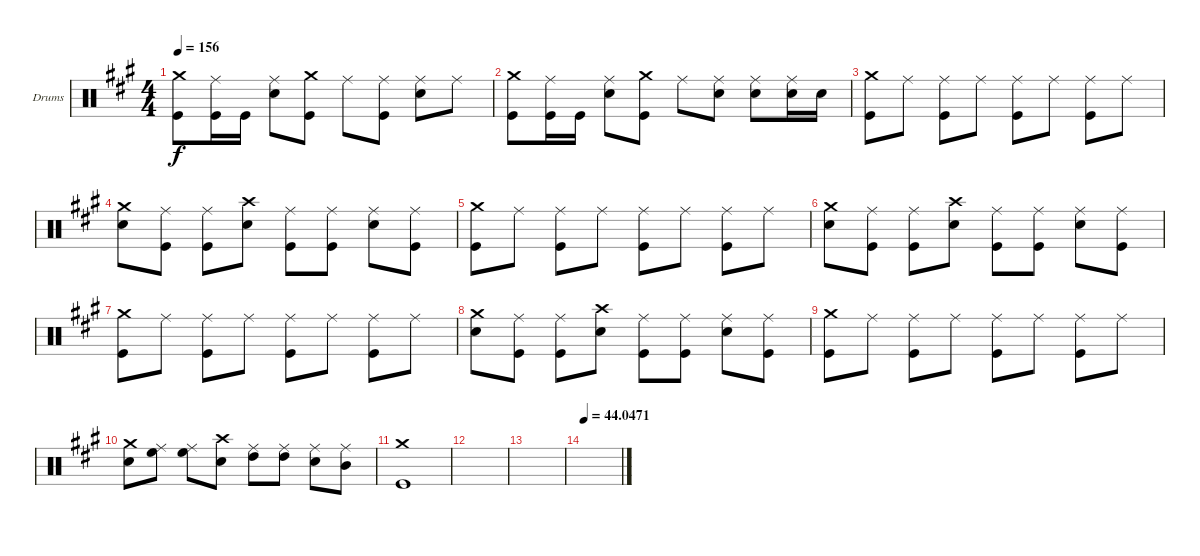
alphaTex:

\defaultSystemsLayout 4
\bracketExtendMode groupsimilarinstruments
\firstSystemTrackNameOrientation horizontal
\otherSystemsTrackNameOrientation horizontal
\track ("Drumkit" "Drums") {instrument percussion}
\staff {score}
\articulation defaults
\ts (4 4)
\tempo 156
\clef neutral
\scale
0.973518
\ks a
("Kick (hit)" "Crash medium (hit)").8{dy f} ("Ride (middle)" "Kick (hit)").16 "Kick (hit)".16 ("Snare (hit) 2" "Ride (middle)").8 ("Crash medium (hit)" "Kick (hit)").8 "Ride (middle)".8 ("Ride (middle)" "Kick (hit)").8 ("Snare (hit) 2" "Ride (middle)").8 "Ride (middle)".8 |
\scale
0.973518 ("Kick (hit)" "Crash medium (hit)").8 ("Ride (middle)" "Kick (hit)").16 "Kick (hit)".16 ("Snare (hit) 2" "Ride (middle)").8 ("Crash medium (hit)" "Kick (hit)").8 "Ride (middle)".8 ("Ride (middle)" "Snare (hit) 2").8 ("Snare (hit) 2" "Ride (middle)").8 ("Ride (middle)" "Snare (hit) 2").16 "Snare (hit) 2".16 |
\scale
1.05296 ("Kick (hit)" "Crash medium (hit)").8 "Ride (middle)".8 ("Kick (hit)" "Ride (middle)").8 "Ride (middle)".8 ("Kick (hit)" "Ride (middle)").8 "Ride (middle)".8 ("Kick (hit)" "Ride (middle)").8 "Ride (middle)".8 |
\scale
0.973518 ("Snare (hit) 2" "Crash medium (hit)").8 ("Ride (middle)" "Kick (hit)").8 ("Kick (hit)" "Ride (middle)").8 ("Crash high (hit)" "Snare (hit) 2").8 ("Kick (hit)" "Ride (middle)").8 ("Ride (middle)" "Kick (hit)").8 ("Snare (hit) 2" "Ride (middle)").8 ("Ride (middle)" "Kick (hit)").8 |
\scale
0.973518 ("Kick (hit)" "Crash medium (hit)").8 "Ride (middle)".8 ("Kick (hit)" "Ride (middle)").8 "Ride (middle)".8 ("Kick (hit)" "Ride (middle)").8 "Ride (middle)".8 ("Kick (hit)" "Ride (middle)").8 "Ride (middle)".8 |
\scale
1.05296 ("Snare (hit) 2" "Crash medium (hit)").8 ("Ride (middle)" "Kick (hit)").8 ("Kick (hit)" "Ride (middle)").8 ("Crash high (hit)" "Snare (hit) 2").8 ("Kick (hit)" "Ride (middle)").8 ("Ride (middle)" "Kick (hit)").8 ("Snare (hit) 2" "Ride (middle)").8 ("Ride (middle)" "Kick (hit)").8 |
\scale
0.973518 ("Kick (hit)" "Crash medium (hit)").8 "Ride (middle)".8 ("Kick (hit)" "Ride (middle)").8 "Ride (middle)".8 ("Kick (hit)" "Ride (middle)").8 "Ride (middle)".8 ("Kick (hit)" "Ride (middle)").8 "Ride (middle)".8 |
\scale
0.973518 ("Snare (hit) 2" "Crash medium (hit)").8 ("Ride (middle)" "Kick (hit)").8 ("Kick (hit)" "Ride (middle)").8 ("Crash high (hit)" "Snare (hit) 2").8 ("Kick (hit)" "Ride (middle)").8 ("Ride (middle)" "Kick (hit)").8 ("Snare (hit) 2" "Ride (middle)").8 ("Ride (middle)" "Kick (hit)").8 |
\scale
1.05296 ("Kick (hit)" "Crash medium (hit)").8 "Ride (middle)".8 ("Kick (hit)" "Ride (middle)").8 "Ride (middle)".8 ("Kick (hit)" "Ride (middle)").8 "Ride (middle)".8 ("Kick (hit)" "Ride (middle)").8 "Ride (middle)".8 |
\scale
0.973518 ("Snare (hit) 2" "Crash medium (hit)").8 ("Ride (middle)" "High Floor Tom (hit)").8 ("High Floor Tom (hit)" "Ride (middle)").8 ("Crash high (hit)" "Snare (hit) 2").8 ("High Tom (hit)" "Ride (middle)").8 ("Ride (middle)" "High Tom (hit)").8 ("Snare (hit) 2" "Ride (middle)").8 ("Ride (middle)" "Mid Tom (hit)").8 |
\scale
0.973518 ("Kick (hit)" "Crash medium (hit)").1 |
\scale
1.05296 |
\scale
0.973518 |
\tempo
44.0471
\scale
0.973518
